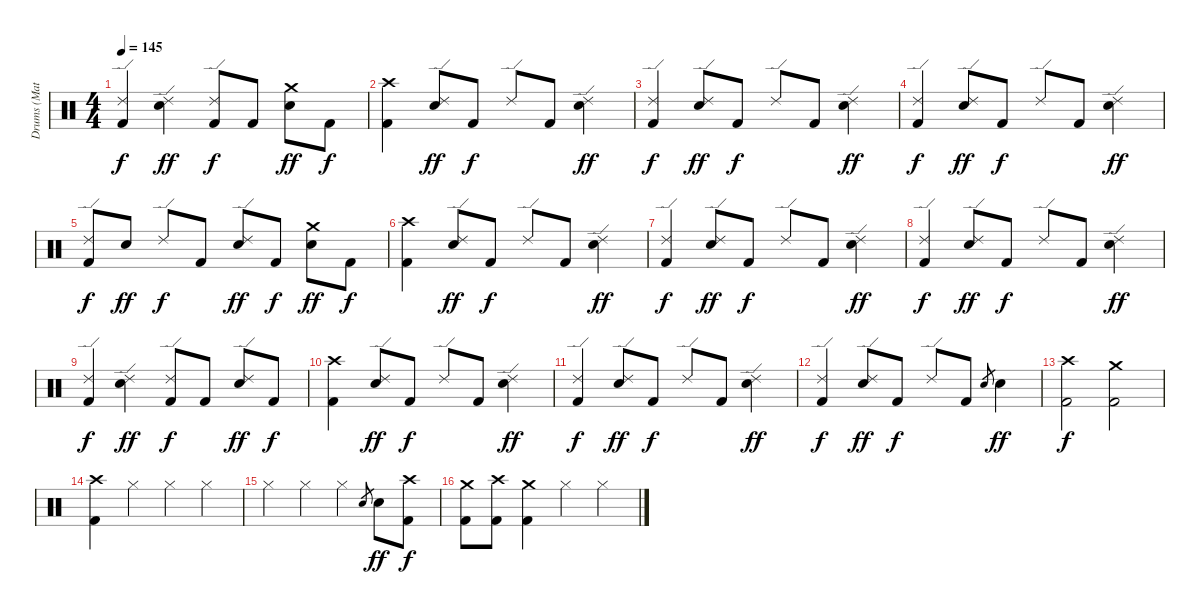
\track ("Drums (Matt)" "Drums (Mat") {instrument percussion}
\staff {score}
\articulation defaults
\ts (4 4)
\tempo 145
\clef neutral
\ks c
("Ride (edge) 2" "Kick (hit) 2").4{dy f} ("Ride (edge) 2" "Snare (hit) 2").4{dy ff} ("Ride (edge) 2" "Kick (hit) 2").8{dy f} "Kick (hit) 2".8 ("Crash medium (hit)" "Snare (hit) 2").8{dy ff} "Kick (hit) 2".8{dy f} |
("Crash high (hit)" "Kick (hit) 2").4 ("Ride (edge) 2" "Snare (hit) 2").8{dy ff} "Kick (hit) 2".8{dy f} "Ride (edge) 2".8 "Kick (hit) 2".8 ("Ride (edge) 2" "Snare (hit) 2").4{dy ff} |
("Ride (edge) 2" "Kick (hit) 2").4{dy f} ("Ride (edge) 2" "Snare (hit) 2").8{dy ff} "Kick (hit) 2".8{dy f} "Ride (edge) 2".8 "Kick (hit) 2".8 ("Ride (edge) 2" "Snare (hit) 2").4{dy ff} |
("Ride (edge) 2" "Kick (hit) 2").4{dy f} ("Ride (edge) 2" "Snare (hit) 2").8{dy ff} "Kick (hit) 2".8{dy f} "Ride (edge) 2".8 "Kick (hit) 2".8 ("Ride (edge) 2" "Snare (hit) 2").4{dy ff} |
("Ride (edge) 2" "Kick (hit) 2").8{dy f} "Snare (hit) 2".8{dy ff} "Ride (edge) 2".8{dy f} "Kick (hit) 2".8 ("Ride (edge) 2" "Snare (hit) 2").8{dy ff} "Kick (hit) 2".8{dy f} ("Crash medium (hit)" "Snare (hit) 2").8{dy ff} "Kick (hit) 2".8{dy f} |
("Crash high (hit)" "Kick (hit) 2").4 ("Ride (edge) 2" "Snare (hit) 2").8{dy ff} "Kick (hit) 2".8{dy f} "Ride (edge) 2".8 "Kick (hit) 2".8 ("Ride (edge) 2" "Snare (hit) 2").4{dy ff} |
("Ride (edge) 2" "Kick (hit) 2").4{dy f} ("Ride (edge) 2" "Snare (hit) 2").8{dy ff} "Kick (hit) 2".8{dy f} "Ride (edge) 2".8 "Kick (hit) 2".8 ("Ride (edge) 2" "Snare (hit) 2").4{dy ff} |
("Ride (edge) 2" "Kick (hit) 2").4{dy f} ("Ride (edge) 2" "Snare (hit) 2").8{dy ff} "Kick (hit) 2".8{dy f} "Ride (edge) 2".8 "Kick (hit) 2".8 ("Ride (edge) 2" "Snare (hit) 2").4{dy ff} |
("Ride (edge) 2" "Kick (hit) 2").4{dy f} ("Ride (edge) 2" "Snare (hit) 2").4{dy ff} ("Ride (edge) 2" "Kick (hit) 2").8{dy f} "Kick (hit) 2".8 ("Ride (edge) 2" "Snare (hit) 2").8{dy ff} "Kick (hit) 2".8{dy f} |
("Crash high (hit)" "Kick (hit) 2").4 ("Ride (edge) 2" "Snare (hit) 2").8{dy ff} "Kick (hit) 2".8{dy f} "Ride (edge) 2".8 "Kick (hit) 2".8 ("Ride (edge) 2" "Snare (hit) 2").4{dy ff} |
("Ride (edge) 2" "Kick (hit) 2").4{dy f} ("Ride (edge) 2" "Snare (hit) 2").8{dy ff} "Kick (hit) 2".8{dy f} "Ride (edge) 2".8 "Kick (hit) 2".8 ("Ride (edge) 2" "Snare (hit) 2").4{dy ff} |
("Ride (edge) 2" "Kick (hit) 2").4{dy f} ("Ride (edge) 2" "Snare (hit) 2").8{dy ff} "Kick (hit) 2".8{dy f} "Ride (edge) 2".8 "Kick (hit) 2".8 "Snare (hit) 2".8{gr} "Snare (hit) 2".4{dy ff} |
("Crash high (hit)" "Kick (hit) 2").2{dy f} ("Crash medium (hit)" "Kick (hit) 2").2 |
("Crash high (hit)" "Kick (hit) 2").4 "Hi-Hat (closed)".4 "Hi-Hat (closed)".4 "Hi-Hat (closed)".4 |
"Hi-Hat (closed)".4 "Hi-Hat (closed)".4 "Hi-Hat (closed)".4 "Snare (hit) 2".8{gr} "Snare (hit) 2".8{dy ff} ("Crash high (hit)" "Kick (hit) 2").8{dy f} |
("Crash medium (hit)" "Kick (hit) 2").8 ("Crash high (hit)" "Kick (hit) 2").8 ("Crash medium (hit)" "Kick (hit) 2").4 "Hi-Hat (closed)".4 "Hi-Hat (closed)".4
